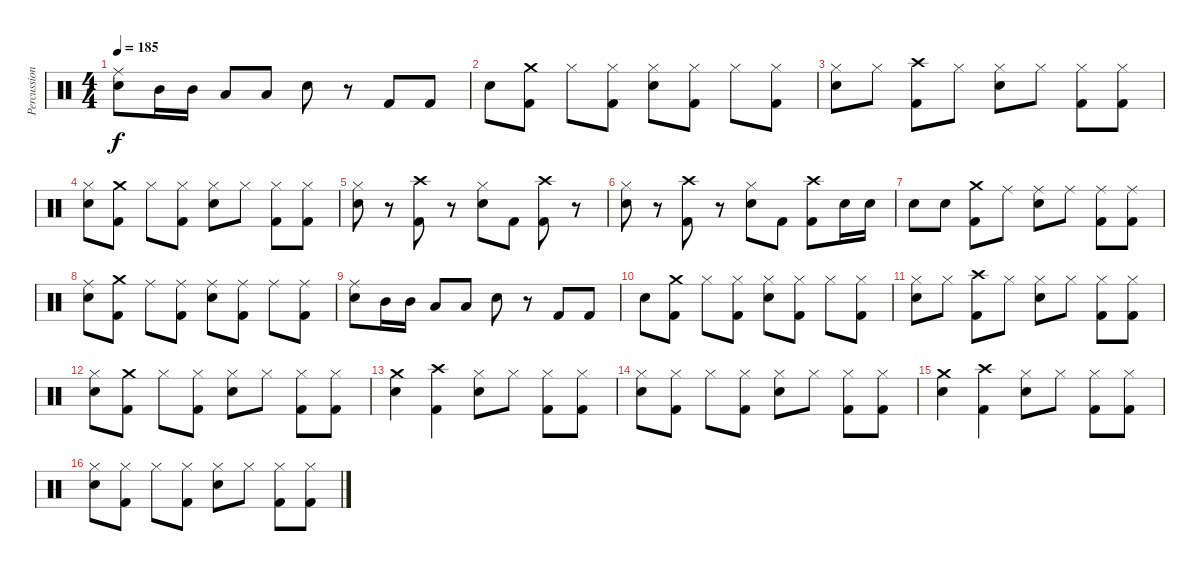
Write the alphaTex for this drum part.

\track ("Percussion" "Percussion") {instrument percussion}
\staff {score}
\articulation defaults
\ts (4 4)
\tempo 185
\clef neutral
\ks c
("Ride (middle)" "Electric Snare (hit)").8{dy f} "Mid Tom (hit)".16 "Mid Tom (hit)".16 "Low Tom (hit)".8 "Low Tom (hit)".8 "Electric Snare (hit)".8 r.8 "Kick (hit) 2".8 "Kick (hit) 2".8 |
"Electric Snare (hit)".8 ("Crash medium (hit)" "Kick (hit) 2").8 "Hi-Hat (closed)".8 ("Hi-Hat (closed)" "Kick (hit) 2").8 ("Hi-Hat (closed)" "Electric Snare (hit)").8 ("Hi-Hat (closed)" "Kick (hit) 2").8 "Hi-Hat (closed)".8 ("Hi-Hat (closed)" "Kick (hit) 2").8 |
("Hi-Hat (closed)" "Electric Snare (hit)").8 "Hi-Hat (closed)".8 ("Crash high (hit)" "Kick (hit) 2").8 "Hi-Hat (closed)".8 ("Hi-Hat (closed)" "Electric Snare (hit)").8 "Hi-Hat (closed)".8 ("Hi-Hat (closed)" "Kick (hit) 2").8 ("Hi-Hat (closed)" "Kick (hit) 2").8 |
("Hi-Hat (closed)" "Electric Snare (hit)").8 ("Crash medium (hit)" "Kick (hit) 2").8 "Hi-Hat (closed)".8 ("Hi-Hat (closed)" "Kick (hit) 2").8 ("Hi-Hat (closed)" "Electric Snare (hit)").8 "Hi-Hat (closed)".8 ("Hi-Hat (closed)" "Kick (hit) 2").8 ("Hi-Hat (closed)" "Kick (hit) 2").8 |
("Hi-Hat (closed)" "Electric Snare (hit)").8 r.8 ("Crash high (hit)" "Kick (hit) 2").8 r.8 ("Hi-Hat (closed)" "Electric Snare (hit)").8 "Kick (hit) 2".8 ("Crash high (hit)" "Kick (hit) 2").8 r.8 |
("Hi-Hat (closed)" "Electric Snare (hit)").8 r.8 ("Crash high (hit)" "Kick (hit) 2").8 r.8 ("Hi-Hat (closed)" "Electric Snare (hit)").8 "Kick (hit) 2".8 ("Crash high (hit)" "Kick (hit) 2").8 "Electric Snare (hit)".16 "Electric Snare (hit)".16 |
"Electric Snare (hit)".8 "Electric Snare (hit)".8 ("Crash medium (hit)" "Kick (hit) 2").8 "Ride (middle)".8 ("Ride (middle)" "Electric Snare (hit)").8 "Ride (middle)".8 ("Ride (middle)" "Kick (hit) 2").8 ("Ride (middle)" "Kick (hit) 2").8 |
("Ride (middle)" "Electric Snare (hit)").8 ("Crash medium (hit)" "Kick (hit) 2").8 "Ride (middle)".8 ("Ride (middle)" "Kick (hit) 2").8 ("Ride (middle)" "Electric Snare (hit)").8 ("Ride (middle)" "Kick (hit) 2").8 "Ride (middle)".8 ("Ride (middle)" "Kick (hit) 2").8 |
("Ride (middle)" "Electric Snare (hit)").8 "Mid Tom (hit)".16 "Mid Tom (hit)".16 "Low Tom (hit)".8 "Low Tom (hit)".8 "Electric Snare (hit)".8 r.8 "Kick (hit) 2".8 "Kick (hit) 2".8 |
"Electric Snare (hit)".8 ("Crash medium (hit)" "Kick (hit) 2").8 "Hi-Hat (closed)".8 ("Hi-Hat (closed)" "Kick (hit) 2").8 ("Hi-Hat (closed)" "Electric Snare (hit)").8 ("Hi-Hat (closed)" "Kick (hit) 2").8 "Hi-Hat (closed)".8 ("Hi-Hat (closed)" "Kick (hit) 2").8 |
("Hi-Hat (closed)" "Electric Snare (hit)").8 "Hi-Hat (closed)".8 ("Crash high (hit)" "Kick (hit) 2").8 "Hi-Hat (closed)".8 ("Hi-Hat (closed)" "Electric Snare (hit)").8 "Hi-Hat (closed)".8 ("Hi-Hat (closed)" "Kick (hit) 2").8 ("Hi-Hat (closed)" "Kick (hit) 2").8 |
("Hi-Hat (closed)" "Electric Snare (hit)").8 ("Crash medium (hit)" "Kick (hit) 2").8 "Hi-Hat (closed)".8 ("Hi-Hat (closed)" "Kick (hit) 2").8 ("Hi-Hat (closed)" "Electric Snare (hit)").8 "Hi-Hat (closed)".8 ("Hi-Hat (closed)" "Kick (hit) 2").8 ("Hi-Hat (closed)" "Kick (hit) 2").8 |
("Crash medium (hit)" "Electric Snare (hit)").4 ("Crash high (hit)" "Kick (hit) 2").4 ("Hi-Hat (closed)" "Electric Snare (hit)").8 "Hi-Hat (closed)".8 ("Hi-Hat (closed)" "Kick (hit) 2").8 ("Hi-Hat (closed)" "Kick (hit) 2").8 |
("Hi-Hat (closed)" "Electric Snare (hit)").8 ("Hi-Hat (closed)" "Kick (hit) 2").8 "Hi-Hat (closed)".8 ("Hi-Hat (closed)" "Kick (hit) 2").8 ("Hi-Hat (closed)" "Electric Snare (hit)").8 "Hi-Hat (closed)".8 ("Hi-Hat (closed)" "Kick (hit) 2").8 ("Hi-Hat (closed)" "Kick (hit) 2").8 |
("Crash medium (hit)" "Electric Snare (hit)").4 ("Crash high (hit)" "Kick (hit) 2").4 ("Hi-Hat (closed)" "Electric Snare (hit)").8 "Hi-Hat (closed)".8 ("Hi-Hat (closed)" "Kick (hit) 2").8 ("Hi-Hat (closed)" "Kick (hit) 2").8 |
("Hi-Hat (closed)" "Electric Snare (hit)").8 ("Hi-Hat (closed)" "Kick (hit) 2").8 "Hi-Hat (closed)".8 ("Hi-Hat (closed)" "Kick (hit) 2").8 ("Hi-Hat (closed)" "Electric Snare (hit)").8 "Hi-Hat (closed)".8 ("Hi-Hat (closed)" "Kick (hit) 2").8 ("Hi-Hat (closed)" "Kick (hit) 2").8
